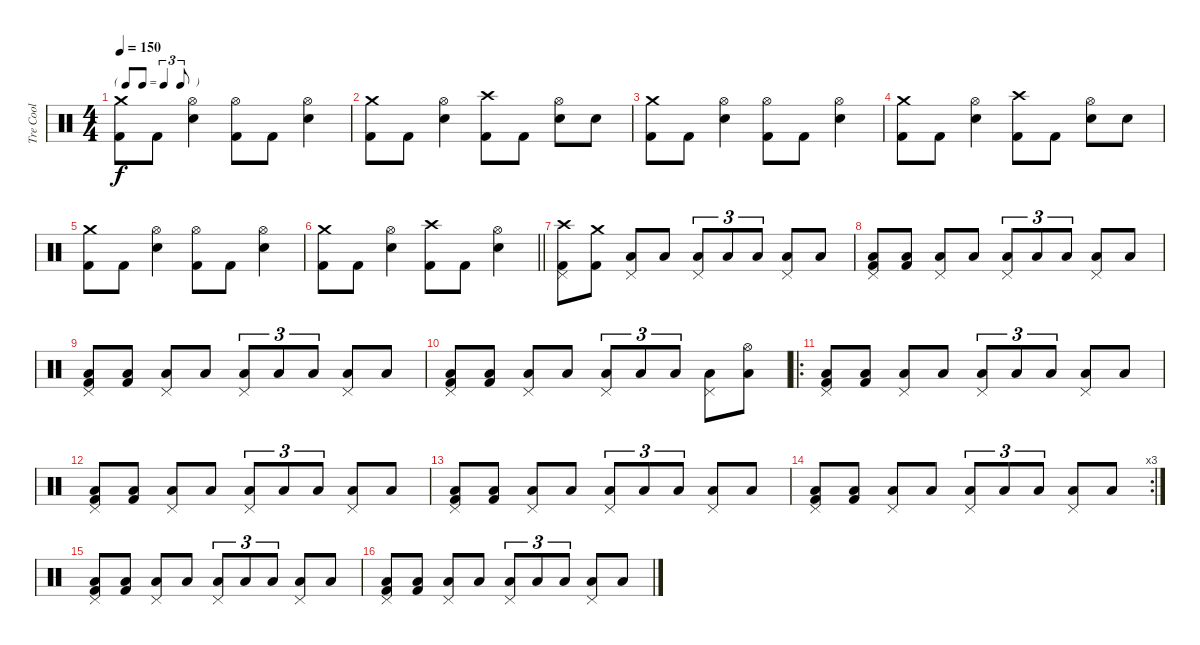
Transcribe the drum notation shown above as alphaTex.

\track ("Tre Cool" "Tre Cool") {instrument percussion}
\staff {score}
\articulation defaults
\ts (4 4)
\tf triplet8th
\tempo 150
\clef neutral
\ks c
("Crash medium (hit)" "Kick (hit) 2").8{dy f} "Kick (hit) 2".8 ("Hi-Hat (open)" "Electric Snare (hit)").4 ("Hi-Hat (open)" "Kick (hit) 2").8 "Kick (hit) 2".8 ("Hi-Hat (open)" "Electric Snare (hit)").4 |
("Crash medium (hit)" "Kick (hit) 2").8 "Kick (hit) 2".8 ("Hi-Hat (open)" "Electric Snare (hit)").4 ("Crash high (hit)" "Kick (hit) 2").8 "Kick (hit) 2".8 ("Hi-Hat (open)" "Electric Snare (hit)").8 "Electric Snare (hit)".8 |
("Crash medium (hit)" "Kick (hit) 2").8 "Kick (hit) 2".8 ("Hi-Hat (open)" "Electric Snare (hit)").4 ("Hi-Hat (open)" "Kick (hit) 2").8 "Kick (hit) 2".8 ("Hi-Hat (open)" "Electric Snare (hit)").4 |
("Crash medium (hit)" "Kick (hit) 2").8 "Kick (hit) 2".8 ("Hi-Hat (open)" "Electric Snare (hit)").4 ("Crash high (hit)" "Kick (hit) 2").8 "Kick (hit) 2".8 ("Hi-Hat (open)" "Electric Snare (hit)").8 "Electric Snare (hit)".8 |
("Crash medium (hit)" "Kick (hit) 2").8 "Kick (hit) 2".8 ("Hi-Hat (open)" "Electric Snare (hit)").4 ("Hi-Hat (open)" "Kick (hit) 2").8 "Kick (hit) 2".8 ("Hi-Hat (open)" "Electric Snare (hit)").4 |
\barLineRight lightlight
("Crash medium (hit)" "Kick (hit) 2").8 "Kick (hit) 2".8 ("Hi-Hat (open)" "Electric Snare (hit)").4 ("Crash high (hit)" "Kick (hit) 2").8 "Kick (hit) 2".8 ("Hi-Hat (open)" "Electric Snare (hit)").4 |
("Crash high (hit)" "Pedal Hi-Hat (hit)" "Kick (hit) 2").8 ("Crash medium (hit)" "Kick (hit) 2").8 ("Pedal Hi-Hat (hit)" "Low Tom (hit)").8 "Low Floor Tom (hit)".8 ("Pedal Hi-Hat (hit)" "Low Floor Tom (hit)").8{tu (3 2)} "Low Floor Tom (hit)".8{tu (3 2)} "Low Floor Tom (hit)".8{tu (3 2)} ("Pedal Hi-Hat (hit)" "Low Tom (hit)").8 "Low Floor Tom (hit)".8 |
("Pedal Hi-Hat (hit)" "Low Floor Tom (hit)" "Kick (hit) 2").8 ("Low Floor Tom (hit)" "Kick (hit) 2").8 ("Pedal Hi-Hat (hit)" "Low Tom (hit)").8 "Low Tom (hit)".8 ("Pedal Hi-Hat (hit)" "Low Floor Tom (hit)").8{tu (3 2)} "Low Floor Tom (hit)".8{tu (3 2)} "Low Floor Tom (hit)".8{tu (3 2)} ("Pedal Hi-Hat (hit)" "Low Tom (hit)").8 "Low Floor Tom (hit)".8 |
("Pedal Hi-Hat (hit)" "Low Floor Tom (hit)" "Kick (hit) 2").8 ("Low Floor Tom (hit)" "Kick (hit) 2").8 ("Pedal Hi-Hat (hit)" "Low Tom (hit)").8 "Low Floor Tom (hit)".8 ("Pedal Hi-Hat (hit)" "Low Floor Tom (hit)").8{tu (3 2)} "Low Floor Tom (hit)".8{tu (3 2)} "Low Floor Tom (hit)".8{tu (3 2)} ("Pedal Hi-Hat (hit)" "Low Tom (hit)").8 "Low Floor Tom (hit)".8 |
("Pedal Hi-Hat (hit)" "Low Floor Tom (hit)" "Kick (hit) 2").8 ("Low Floor Tom (hit)" "Kick (hit) 2").8 ("Pedal Hi-Hat (hit)" "Low Tom (hit)").8 "Low Tom (hit)".8 ("Pedal Hi-Hat (hit)" "Low Floor Tom (hit)").8{tu (3 2)} "Low Floor Tom (hit)".8{tu (3 2)} "Low Floor Tom (hit)".8{tu (3 2)} ("Pedal Hi-Hat (hit)" "Low Tom (hit)").8 ("Hi-Hat (open)" "Low Floor Tom (hit)").8 |
\ro
("Pedal Hi-Hat (hit)" "Low Floor Tom (hit)" "Kick (hit) 2").8 ("Low Floor Tom (hit)" "Kick (hit) 2").8 ("Pedal Hi-Hat (hit)" "Low Tom (hit)").8 "Low Floor Tom (hit)".8 ("Pedal Hi-Hat (hit)" "Low Floor Tom (hit)").8{tu (3 2)} "Low Floor Tom (hit)".8{tu (3 2)} "Low Floor Tom (hit)".8{tu (3 2)} ("Pedal Hi-Hat (hit)" "Low Tom (hit)").8 "Low Floor Tom (hit)".8 |
("Pedal Hi-Hat (hit)" "Low Floor Tom (hit)" "Kick (hit) 2").8 ("Low Floor Tom (hit)" "Kick (hit) 2").8 ("Pedal Hi-Hat (hit)" "Low Tom (hit)").8 "Low Tom (hit)".8 ("Pedal Hi-Hat (hit)" "Low Floor Tom (hit)").8{tu (3 2)} "Low Floor Tom (hit)".8{tu (3 2)} "Low Floor Tom (hit)".8{tu (3 2)} ("Pedal Hi-Hat (hit)" "Low Tom (hit)").8 "Low Floor Tom (hit)".8 |
("Pedal Hi-Hat (hit)" "Low Floor Tom (hit)" "Kick (hit) 2").8 ("Low Floor Tom (hit)" "Kick (hit) 2").8 ("Pedal Hi-Hat (hit)" "Low Tom (hit)").8 "Low Floor Tom (hit)".8 ("Pedal Hi-Hat (hit)" "Low Floor Tom (hit)").8{tu (3 2)} "Low Floor Tom (hit)".8{tu (3 2)} "Low Floor Tom (hit)".8{tu (3 2)} ("Pedal Hi-Hat (hit)" "Low Tom (hit)").8 "Low Floor Tom (hit)".8 |
\rc 3
("Pedal Hi-Hat (hit)" "Low Floor Tom (hit)" "Kick (hit) 2").8 ("Low Floor Tom (hit)" "Kick (hit) 2").8 ("Pedal Hi-Hat (hit)" "Low Tom (hit)").8 "Low Tom (hit)".8 ("Pedal Hi-Hat (hit)" "Low Floor Tom (hit)").8{tu (3 2)} "Low Floor Tom (hit)".8{tu (3 2)} "Low Floor Tom (hit)".8{tu (3 2)} ("Pedal Hi-Hat (hit)" "Low Tom (hit)").8 "Low Floor Tom (hit)".8 |
("Pedal Hi-Hat (hit)" "Low Floor Tom (hit)" "Kick (hit) 2").8 ("Low Floor Tom (hit)" "Kick (hit) 2").8 ("Pedal Hi-Hat (hit)" "Low Tom (hit)").8 "Low Floor Tom (hit)".8 ("Pedal Hi-Hat (hit)" "Low Floor Tom (hit)").8{tu (3 2)} "Low Floor Tom (hit)".8{tu (3 2)} "Low Floor Tom (hit)".8{tu (3 2)} ("Pedal Hi-Hat (hit)" "Low Tom (hit)").8 "Low Floor Tom (hit)".8 |
("Pedal Hi-Hat (hit)" "Low Floor Tom (hit)" "Kick (hit) 2").8 ("Low Floor Tom (hit)" "Kick (hit) 2").8 ("Pedal Hi-Hat (hit)" "Low Tom (hit)").8 "Low Tom (hit)".8 ("Pedal Hi-Hat (hit)" "Low Floor Tom (hit)").8{tu (3 2)} "Low Floor Tom (hit)".8{tu (3 2)} "Low Floor Tom (hit)".8{tu (3 2)} ("Pedal Hi-Hat (hit)" "Low Tom (hit)").8 "Low Floor Tom (hit)".8
